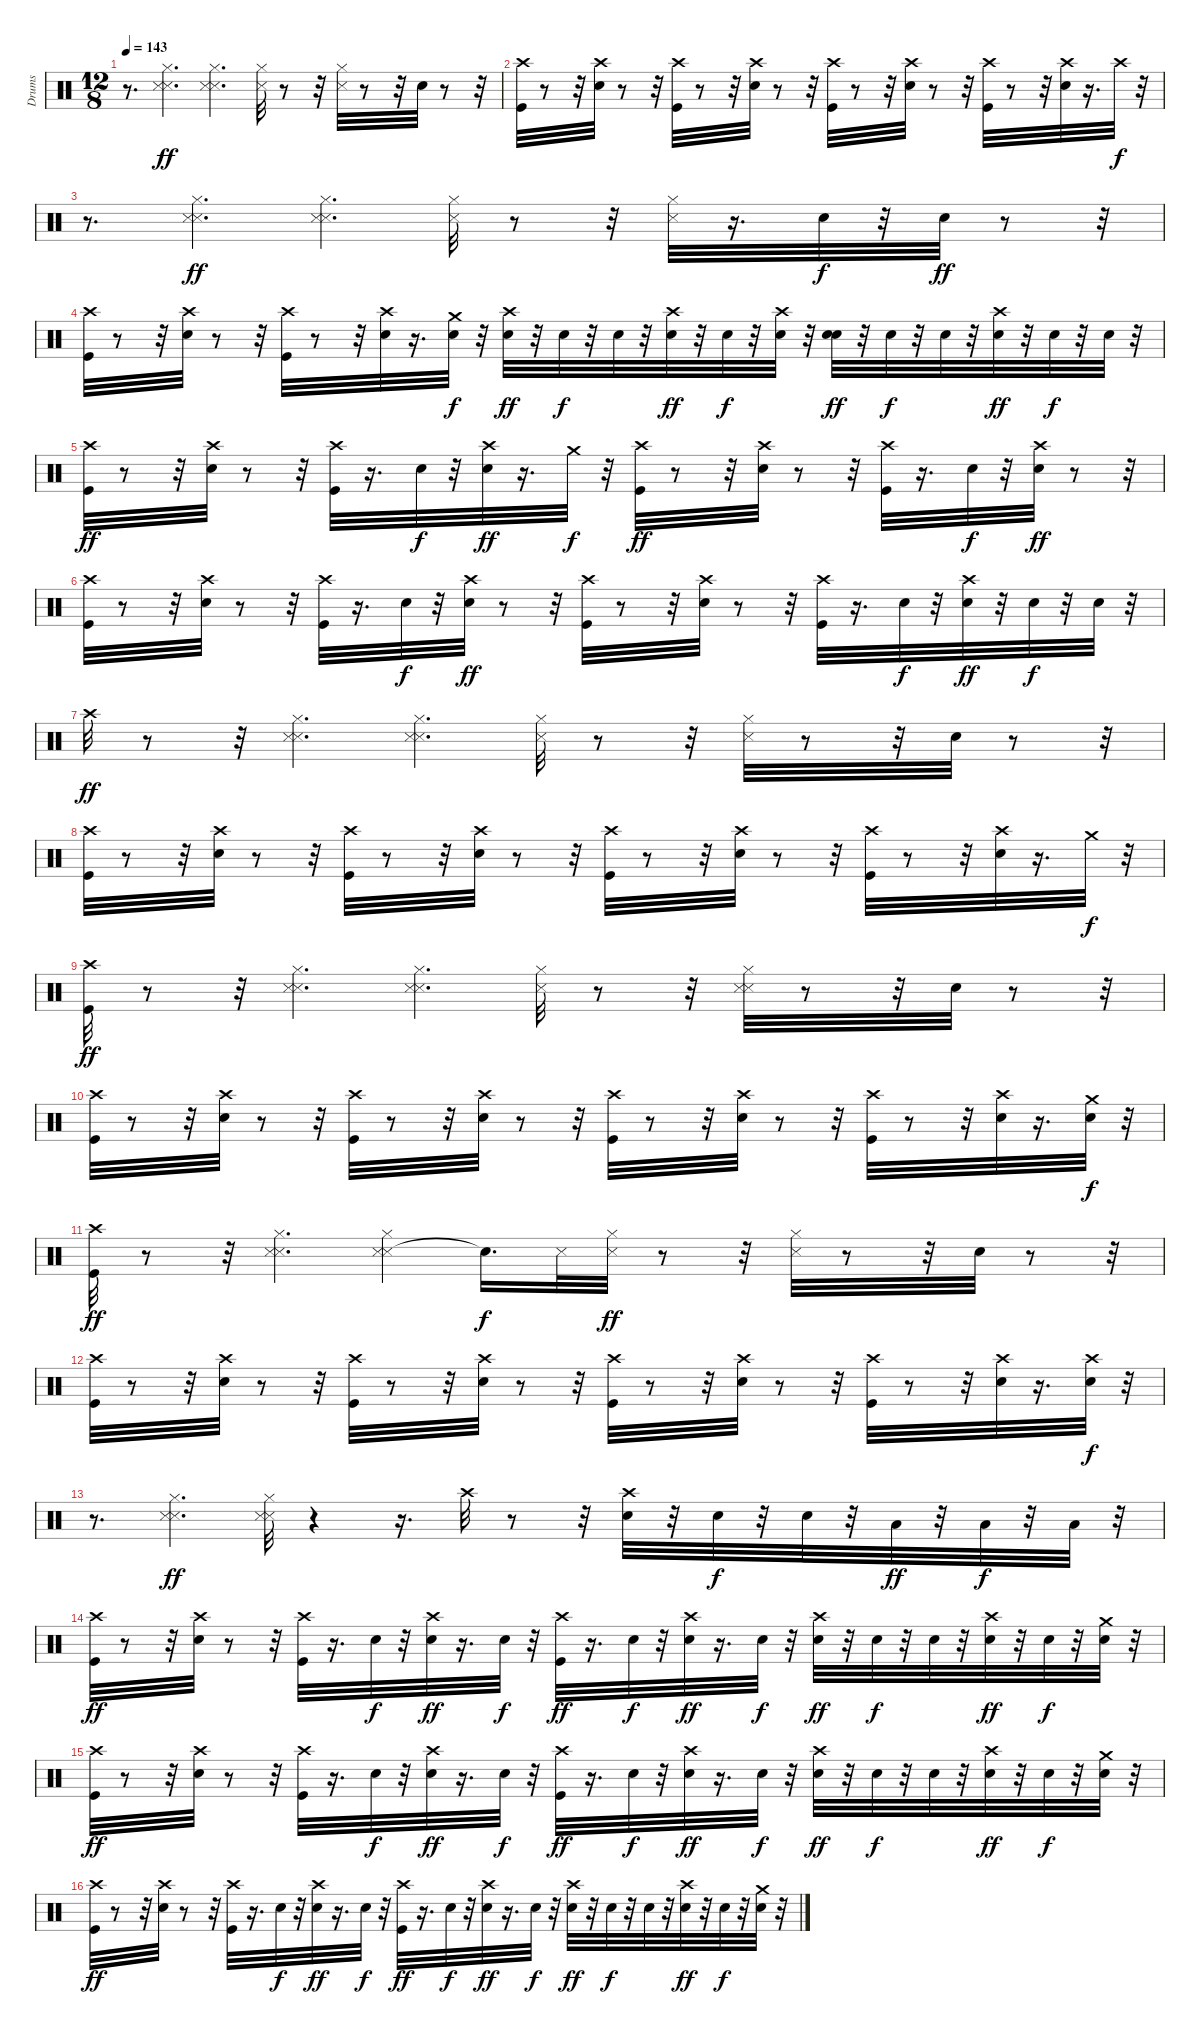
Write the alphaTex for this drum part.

\track ("Drums" "Drums") {instrument percussion}
\staff {score}
\articulation defaults
\ts (12 8)
\tempo 143
\clef neutral
\ks c
r.8{d dy f} ("Metronome (hit)" "Metronome (hit)" "Hi-Hat (closed)").4{d dy ff} ("Metronome (hit)" "Metronome (hit)" "Hi-Hat (closed)").4{d} ("Hi-Hat (closed)" "Metronome (hit)").32 r.8 r.32 ("Metronome (hit)" "Hi-Hat (closed)").32 r.8 r.32 "Snare (hit) 2".32 r.8 r.32 |
("Crash high (hit)" "Kick (hit)").32 r.8 r.32 ("Crash high (hit)" "Snare (hit) 2").32 r.8 r.32 ("Crash high (hit)" "Kick (hit)").32 r.8 r.32 ("Crash high (hit)" "Snare (hit) 2").32 r.8 r.32 ("Crash high (hit)" "Kick (hit)").32 r.8 r.32 ("Crash high (hit)" "Snare (hit) 2").32 r.8 r.32 ("Crash high (hit)" "Kick (hit)").32 r.8 r.32 ("Crash high (hit)" "Snare (hit) 2").32 r.16{d} "Crash high (hit)".32{dy f} r.32 |
r.8{d} ("Metronome (hit)" "Metronome (hit)" "Hi-Hat (closed)").4{d dy ff} ("Metronome (hit)" "Metronome (hit)" "Hi-Hat (closed)").4{d} ("Metronome (hit)" "Hi-Hat (closed)").32 r.8 r.32 ("Hi-Hat (closed)" "Metronome (hit)").32 r.16{d} "Snare (hit) 2".32{dy f} r.32 "Snare (hit) 2".32{dy ff} r.8 r.32 |
("Crash high (hit)" "Kick (hit)").32 r.8 r.32 ("Crash high (hit)" "Snare (hit) 2").32 r.8 r.32 ("Crash high (hit)" "Kick (hit)").32 r.8 r.32 ("Crash high (hit)" "Snare (hit) 2").32 r.16{d} ("Crash medium (hit)" "Snare (hit) 2").32{dy f} r.32 ("Electric Snare (hit)" "Crash high (hit)").32{dy ff} r.32 "Snare (hit) 2".32{dy f} r.32 "Snare (hit) 2".32 r.32 ("Snare (hit) 2" "Crash high (hit)").32{dy ff} r.32 "Snare (hit) 2".32{dy f} r.32 ("Snare (hit) 2" "Crash high (hit)").32 r.32 ("Snare (hit) 2" "Electric Snare (hit)").32{dy ff} r.32 "Snare (hit) 2".32{dy f} r.32 "Snare (hit) 2".32 r.32 ("Snare (hit) 2" "Crash high (hit)").32{dy ff} r.32 "Snare (hit) 2".32{dy f} r.32 "Snare (hit) 2".32 r.32 |
("Kick (hit)" "Crash high (hit)").32{dy ff} r.8 r.32 ("Snare (hit) 2" "Crash high (hit)").32 r.8 r.32 ("Kick (hit)" "Crash high (hit)").32 r.16{d} "Snare (hit) 2".32{dy f} r.32 ("Snare (hit) 2" "Crash high (hit)").32{dy ff} r.16{d} "Crash medium (hit)".32{dy f} r.32 ("Kick (hit)" "Crash high (hit)").32{dy ff} r.8 r.32 ("Snare (hit) 2" "Crash high (hit)").32 r.8 r.32 ("Kick (hit)" "Crash high (hit)").32 r.16{d} "Snare (hit) 2".32{dy f} r.32 ("Snare (hit) 2" "Crash high (hit)").32{dy ff} r.8 r.32 |
("Kick (hit)" "Crash high (hit)").32 r.8 r.32 ("Snare (hit) 2" "Crash high (hit)").32 r.8 r.32 ("Kick (hit)" "Crash high (hit)").32 r.16{d} "Snare (hit) 2".32{dy f} r.32 ("Snare (hit) 2" "Crash high (hit)").32{dy ff} r.8 r.32 ("Kick (hit)" "Crash high (hit)").32 r.8 r.32 ("Snare (hit) 2" "Crash high (hit)").32 r.8 r.32 ("Kick (hit)" "Crash high (hit)").32 r.16{d} "Electric Snare (hit)".32{dy f} r.32 ("Snare (hit) 2" "Crash high (hit)").32{dy ff} r.32 "Snare (hit) 2".32{dy f} r.32 "Snare (hit) 2".32 r.32 |
"Crash high (hit)".32{dy ff} r.8 r.32 ("Metronome (hit)" "Metronome (hit)" "Hi-Hat (closed)").4{d} ("Metronome (hit)" "Metronome (hit)" "Hi-Hat (closed)").4{d} ("Metronome (hit)" "Hi-Hat (closed)").32 r.8 r.32 ("Metronome (hit)" "Hi-Hat (closed)").32 r.8 r.32 "Snare (hit) 2".32 r.8 r.32 |
("Crash high (hit)" "Kick (hit)").32 r.8 r.32 ("Crash high (hit)" "Snare (hit) 2").32 r.8 r.32 ("Crash high (hit)" "Kick (hit)").32 r.8 r.32 ("Crash high (hit)" "Snare (hit) 2").32 r.8 r.32 ("Crash high (hit)" "Kick (hit)").32 r.8 r.32 ("Crash high (hit)" "Snare (hit) 2").32 r.8 r.32 ("Crash high (hit)" "Kick (hit)").32 r.8 r.32 ("Crash high (hit)" "Snare (hit) 2").32 r.16{d} "Crash medium (hit)".32{dy f} r.32 |
("Kick (hit)" "Crash high (hit)").32{dy ff} r.8 r.32 ("Metronome (hit)" "Metronome (hit)" "Hi-Hat (closed)").4{d} ("Metronome (hit)" "Metronome (hit)" "Hi-Hat (closed)").4{d} ("Metronome (hit)" "Hi-Hat (closed)").32 r.8 r.32 ("Metronome (hit)" "Hi-Hat (closed)" "Metronome (hit)").32 r.8 r.32 "Snare (hit) 2".32 r.8 r.32 |
("Crash high (hit)" "Kick (hit)").32 r.8 r.32 ("Crash high (hit)" "Snare (hit) 2").32 r.8 r.32 ("Crash high (hit)" "Kick (hit)").32 r.8 r.32 ("Crash high (hit)" "Snare (hit) 2").32 r.8 r.32 ("Crash high (hit)" "Kick (hit)").32 r.8 r.32 ("Crash high (hit)" "Snare (hit) 2").32 r.8 r.32 ("Crash high (hit)" "Kick (hit)").32 r.8 r.32 ("Crash high (hit)" "Snare (hit) 2").32 r.16{d} ("Crash medium (hit)" "Snare (hit) 2").32{dy f} r.32 |
("Kick (hit)" "Crash high (hit)").32{dy ff} r.8 r.32 ("Metronome (hit)" "Metronome (hit)" "Hi-Hat (closed)").4{d} ("Metronome (hit)" "Metronome (hit)" "Hi-Hat (closed)").4 "Snare (hit)"{t}.16{d dy f} "Metronome (hit)".32 ("Metronome (hit)" "Hi-Hat (closed)").32{dy ff} r.8 r.32 ("Metronome (hit)" "Hi-Hat (closed)").32 r.8 r.32 "Snare (hit) 2".32 r.8 r.32 |
("Crash high (hit)" "Kick (hit)").32 r.8 r.32 ("Crash high (hit)" "Snare (hit) 2").32 r.8 r.32 ("Crash high (hit)" "Kick (hit)").32 r.8 r.32 ("Crash high (hit)" "Snare (hit) 2").32 r.8 r.32 ("Crash high (hit)" "Kick (hit)").32 r.8 r.32 ("Crash high (hit)" "Snare (hit) 2").32 r.8 r.32 ("Crash high (hit)" "Kick (hit)").32 r.8 r.32 ("Crash high (hit)" "Snare (hit) 2").32 r.16{d} ("Snare (hit) 2" "Crash high (hit)").32{dy f} r.32 |
r.8{d} ("Metronome (hit)" "Metronome (hit)" "Hi-Hat (closed)").4{d dy ff} ("Metronome (hit)" "Hi-Hat (closed)" "Metronome (hit)").32 r.4 r.16{d} "Crash high (hit)".32 r.8 r.32 ("Snare (hit) 2" "Crash high (hit)").32 r.32 "Snare (hit) 2".32{dy f} r.32 "Snare (hit) 2".32 r.32 "Low Tom (hit)".32{dy ff} r.32 "Low Tom (hit)".32{dy f} r.32 "Low Tom (hit)".32 r.32 |
("Crash high (hit)" "Kick (hit)").32{dy ff} r.8 r.32 ("Crash high (hit)" "Snare (hit) 2").32 r.8 r.32 ("Crash high (hit)" "Kick (hit)").32 r.16{d} "Snare (hit) 2".32{dy f} r.32 ("Crash high (hit)" "Snare (hit) 2").32{dy ff} r.16{d} "Snare (hit) 2".32{dy f} r.32 ("Crash high (hit)" "Kick (hit)").32{dy ff} r.16{d} "Snare (hit) 2".32{dy f} r.32 ("Crash high (hit)" "Snare (hit) 2").32{dy ff} r.16{d} "Snare (hit) 2".32{dy f} r.32 ("Snare (hit) 2" "Crash high (hit)").32{dy ff} r.32 "Snare (hit) 2".32{dy f} r.32 "Snare (hit) 2".32 r.32 ("Crash high (hit)" "Snare (hit) 2").32{dy ff} r.32 "Snare (hit) 2".32{dy f} r.32 ("Crash medium (hit)" "Snare (hit) 2").32 r.32 |
("Crash high (hit)" "Kick (hit)").32{dy ff} r.8 r.32 ("Crash high (hit)" "Snare (hit) 2").32 r.8 r.32 ("Crash high (hit)" "Kick (hit)").32 r.16{d} "Snare (hit) 2".32{dy f} r.32 ("Crash high (hit)" "Snare (hit) 2").32{dy ff} r.16{d} "Snare (hit) 2".32{dy f} r.32 ("Crash high (hit)" "Kick (hit)").32{dy ff} r.16{d} "Snare (hit) 2".32{dy f} r.32 ("Crash high (hit)" "Snare (hit) 2").32{dy ff} r.16{d} "Snare (hit) 2".32{dy f} r.32 ("Snare (hit) 2" "Crash high (hit)").32{dy ff} r.32 "Snare (hit) 2".32{dy f} r.32 "Snare (hit) 2".32 r.32 ("Crash high (hit)" "Snare (hit) 2").32{dy ff} r.32 "Snare (hit) 2".32{dy f} r.32 ("Crash medium (hit)" "Snare (hit) 2").32 r.32 |
("Crash high (hit)" "Kick (hit)").32{dy ff} r.8 r.32 ("Crash high (hit)" "Snare (hit) 2").32 r.8 r.32 ("Crash high (hit)" "Kick (hit)").32 r.16{d} "Snare (hit) 2".32{dy f} r.32 ("Crash high (hit)" "Snare (hit) 2").32{dy ff} r.16{d} "Snare (hit) 2".32{dy f} r.32 ("Crash high (hit)" "Kick (hit)").32{dy ff} r.16{d} "Snare (hit) 2".32{dy f} r.32 ("Crash high (hit)" "Snare (hit) 2").32{dy ff} r.16{d} "Snare (hit) 2".32{dy f} r.32 ("Snare (hit) 2" "Crash high (hit)").32{dy ff} r.32 "Snare (hit) 2".32{dy f} r.32 "Snare (hit) 2".32 r.32 ("Crash high (hit)" "Snare (hit) 2").32{dy ff} r.32 "Snare (hit) 2".32{dy f} r.32 ("Crash medium (hit)" "Snare (hit) 2").32 r.32
